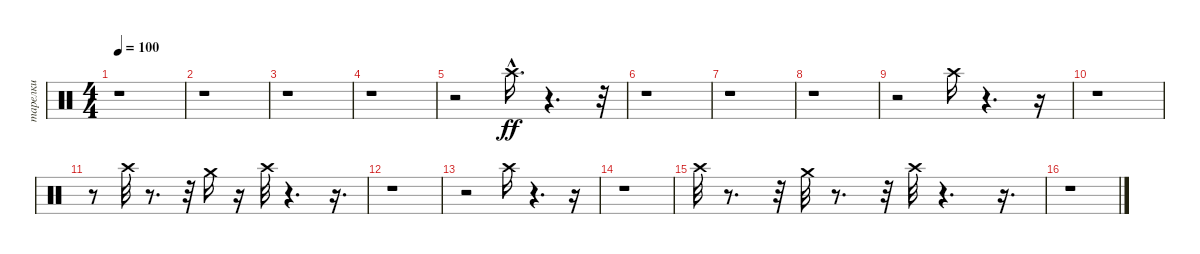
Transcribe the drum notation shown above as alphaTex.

\track ("тарелки" "тарелки") {instrument percussion}
\staff {score}
\articulation defaults
\ts (4 4)
\tempo 100
\clef neutral
\ks c
r.1{dy ff} |
r.1 |
r.1 |
r.1 |
r.2 "Crash high (hit)"{hac}.16{d} r.4{d} r.32 |
r.1 |
r.1 |
r.1 |
r.2 "Crash high (hit)".16 r.4{d} r.16 |
r.1 |
r.8 "Crash high (hit)".32 r.8{d} r.32 "Crash medium (hit)".16 r.16 "Crash high (hit)".32 r.4{d} r.16{d} |
r.1 |
r.2 "Crash high (hit)".16 r.4{d} r.16 |
r.1 |
"Crash high (hit)".32 r.8{d} r.32 "Crash medium (hit)".32 r.8{d} r.32 "Crash high (hit)".32 r.4{d} r.16{d} |
r.1
